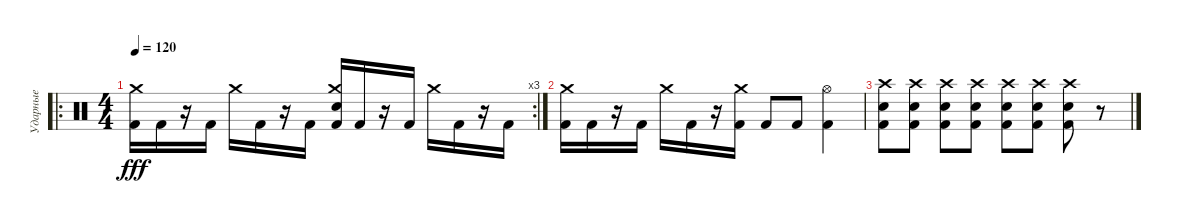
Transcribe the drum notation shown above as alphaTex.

\track ("Ударные" "Ударные") {instrument percussion}
\staff {score}
\articulation defaults
\ro
\rc 3
\ts (4 4)
\tempo 120
\clef neutral
\ks c
("Kick (hit) 2" "Crash medium (hit)").16{dy fff} "Kick (hit) 2".16 r.16 "Kick (hit) 2".16 "Crash medium (hit)".16 "Kick (hit) 2".16 r.16 "Kick (hit) 2".16 ("Kick (hit) 2" "Crash medium (hit)" "Snare (hit) 2").16 "Kick (hit) 2".16 r.16 "Kick (hit) 2".16 "Crash medium (hit)".16 "Kick (hit) 2".16 r.16 "Kick (hit) 2".16 |
("Kick (hit) 2" "Crash medium (hit)").16 "Kick (hit) 2".16 r.16 "Kick (hit) 2".16 "Crash medium (hit)".16 "Kick (hit) 2".16 r.16 ("Kick (hit) 2" "Crash medium (hit)").16 "Kick (hit) 2".8 "Kick (hit) 2".8 ("Kick (hit) 2" "Hi-Hat (open)").4 |
("Crash high (hit)" "Snare (hit) 2" "Kick (hit) 2").8 ("Crash high (hit)" "Snare (hit) 2" "Kick (hit) 2").8 ("Crash high (hit)" "Snare (hit) 2" "Kick (hit) 2").8 ("Crash high (hit)" "Snare (hit) 2" "Kick (hit) 2").8 ("Crash high (hit)" "Snare (hit) 2" "Kick (hit) 2").8 ("Crash high (hit)" "Snare (hit) 2" "Kick (hit) 2").8 ("Crash high (hit)" "Snare (hit) 2" "Kick (hit) 2").8 r.8
